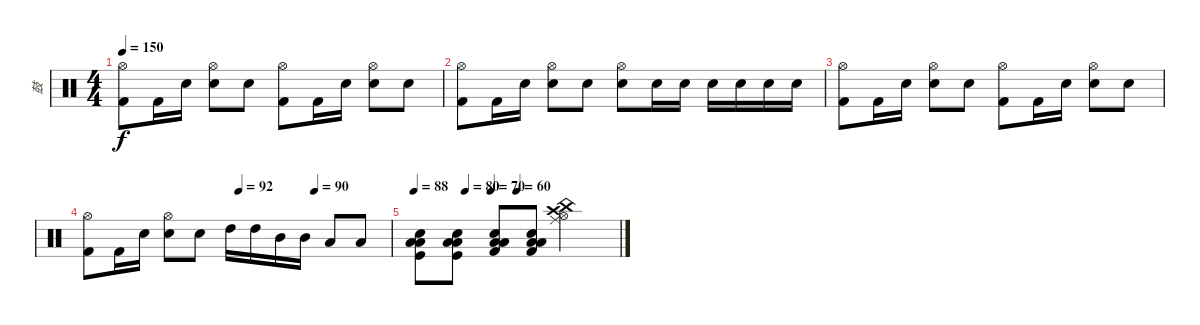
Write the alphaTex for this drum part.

\track ("鼓" "鼓") {instrument percussion}
\staff {score}
\articulation defaults
\ts (4 4)
\tempo 150
\clef neutral
\ks c
("Hi-Hat (open)" "Kick (hit) 2").8{dy f} "Kick (hit) 2".16 "Electric Snare (hit)".16 ("Hi-Hat (open)" "Electric Snare (hit)").8 "Electric Snare (hit)".8 ("Hi-Hat (open)" "Kick (hit) 2").8 "Kick (hit) 2".16 "Electric Snare (hit)".16 ("Hi-Hat (open)" "Electric Snare (hit)").8 "Electric Snare (hit)".8 |
("Hi-Hat (open)" "Kick (hit) 2").8 "Kick (hit) 2".16 "Electric Snare (hit)".16 ("Hi-Hat (open)" "Electric Snare (hit)").8 "Electric Snare (hit)".8 ("Hi-Hat (open)" "Electric Snare (hit)").8 "Electric Snare (hit)".16 "Electric Snare (hit)".16 "Electric Snare (hit)".16 "Electric Snare (hit)".16 "Electric Snare (hit)".16 "Electric Snare (hit)".16 |
("Hi-Hat (open)" "Kick (hit) 2").8 "Kick (hit) 2".16 "Electric Snare (hit)".16 ("Hi-Hat (open)" "Electric Snare (hit)").8 "Electric Snare (hit)".8 ("Hi-Hat (open)" "Kick (hit) 2").8 "Kick (hit) 2".16 "Electric Snare (hit)".16 ("Hi-Hat (open)" "Electric Snare (hit)").8 "Electric Snare (hit)".8 |
\tempo (92 0.5)
\tempo (90 0.75)
("Hi-Hat (open)" "Kick (hit) 2").8 "Kick (hit) 2".16 "Electric Snare (hit)".16 ("Hi-Hat (open)" "Electric Snare (hit)").8 "Electric Snare (hit)".8 "High Tom (hit)".16 "High Tom (hit)".16 "Mid Tom (hit)".16 "Mid Tom (hit)".16 "Low Tom (hit)".8 "Low Tom (hit)".8 |
\tempo 88
\tempo (80 0.25)
\tempo (70 0.375)
\tempo (60 0.5)
("Kick (hit)" "Low Tom (hit)" "Electric Snare (hit)" "Low Floor Tom (hit)").8{volume 11} ("Kick (hit)" "Low Tom (hit)" "Electric Snare (hit)" "Low Floor Tom (hit)").8 ("Kick (hit) 2" "Low Tom (hit)" "Snare (hit) 2" "Low Floor Tom (hit)").8{volume 16} ("Kick (hit) 2" "Low Tom (hit)" "Snare (hit) 2" "Low Floor Tom (hit)").8 ("Hi-Hat (open)" "Crash high (hit)" "China (hit)" "Ride (middle)").2{volume 16}
